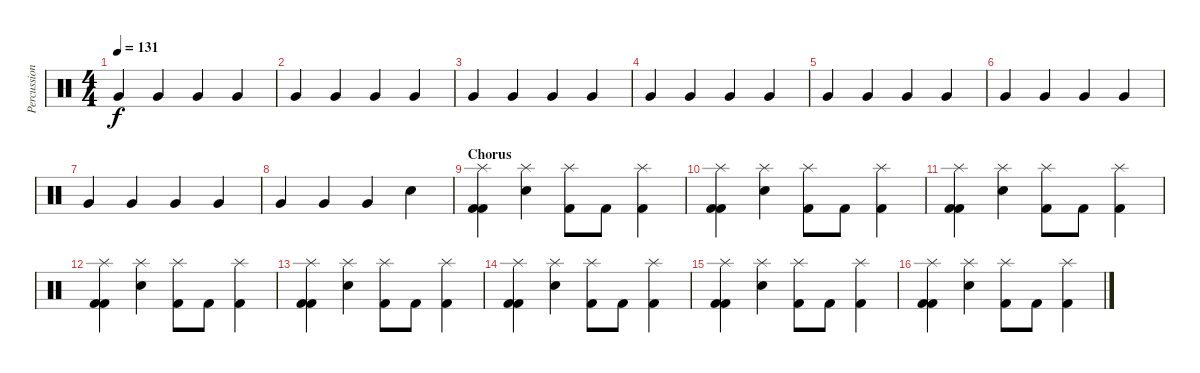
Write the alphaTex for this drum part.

\track ("Percussion" "Percussion") {instrument percussion}
\staff {score}
\articulation defaults
\ts (4 4)
\tempo 131
\clef neutral
\ks c "Very Low Tom (hit)".4{dy f} "Very Low Tom (hit)".4 "Very Low Tom (hit)".4 "Very Low Tom (hit)".4
|
"Very Low Tom (hit)".4 "Very Low Tom (hit)".4 "Very Low Tom (hit)".4 "Very Low Tom (hit)".4 |
"Very Low Tom (hit)".4 "Very Low Tom (hit)".4 "Very Low Tom (hit)".4 "Very Low Tom (hit)".4 |
"Very Low Tom (hit)".4 "Very Low Tom (hit)".4 "Very Low Tom (hit)".4 "Very Low Tom (hit)".4 |
"Very Low Tom (hit)".4 "Very Low Tom (hit)".4 "Very Low Tom (hit)".4 "Very Low Tom (hit)".4 |
"Very Low Tom (hit)".4 "Very Low Tom (hit)".4 "Very Low Tom (hit)".4 "Very Low Tom (hit)".4 |
"Very Low Tom (hit)".4 "Very Low Tom (hit)".4 "Very Low Tom (hit)".4 "Very Low Tom (hit)".4 |
"Very Low Tom (hit)".4 "Very Low Tom (hit)".4 "Very Low Tom (hit)".4 "Snare (hit) 2".4 |
\section ("" "Chorus")
("Splash (hit)" "Kick (hit) 2" "Kick (hit) 2").4 ("Splash (hit)" "Snare (hit) 2").4 ("Splash (hit)" "Kick (hit) 2").8 "Kick (hit) 2".8 ("Splash (hit)" "Kick (hit) 2").4 |
("Splash (hit)" "Kick (hit) 2" "Kick (hit) 2").4 ("Splash (hit)" "Snare (hit) 2").4 ("Splash (hit)" "Kick (hit) 2").8 "Kick (hit) 2".8 ("Splash (hit)" "Kick (hit) 2").4 |
("Splash (hit)" "Kick (hit) 2" "Kick (hit) 2").4 ("Splash (hit)" "Snare (hit) 2").4 ("Splash (hit)" "Kick (hit) 2").8 "Kick (hit) 2".8 ("Splash (hit)" "Kick (hit) 2").4 |
("Splash (hit)" "Kick (hit) 2" "Kick (hit) 2").4 ("Splash (hit)" "Snare (hit) 2").4 ("Splash (hit)" "Kick (hit) 2").8 "Kick (hit) 2".8 ("Splash (hit)" "Kick (hit) 2").4 |
("Splash (hit)" "Kick (hit) 2" "Kick (hit) 2").4 ("Splash (hit)" "Snare (hit) 2").4 ("Splash (hit)" "Kick (hit) 2").8 "Kick (hit) 2".8 ("Splash (hit)" "Kick (hit) 2").4 |
("Splash (hit)" "Kick (hit) 2" "Kick (hit) 2").4 ("Splash (hit)" "Snare (hit) 2").4 ("Splash (hit)" "Kick (hit) 2").8 "Kick (hit) 2".8 ("Splash (hit)" "Kick (hit) 2").4 |
("Splash (hit)" "Kick (hit) 2" "Kick (hit) 2").4 ("Splash (hit)" "Snare (hit) 2").4 ("Splash (hit)" "Kick (hit) 2").8 "Kick (hit) 2".8 ("Splash (hit)" "Kick (hit) 2").4 |
("Splash (hit)" "Kick (hit) 2" "Kick (hit) 2").4 ("Splash (hit)" "Snare (hit) 2").4 ("Splash (hit)" "Kick (hit) 2").8 "Kick (hit) 2".8 ("Splash (hit)" "Kick (hit) 2").4
